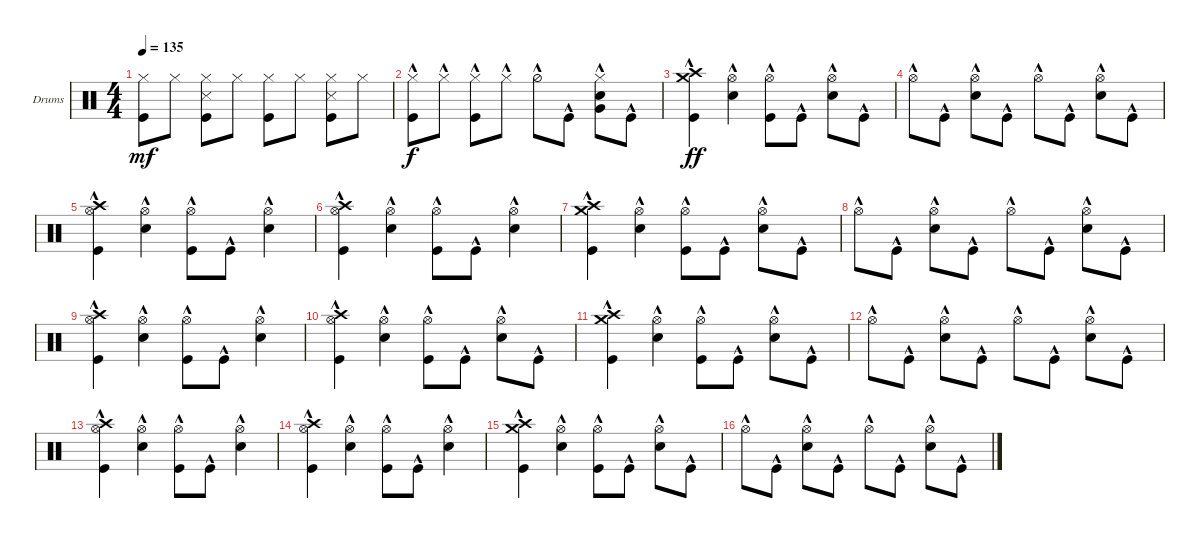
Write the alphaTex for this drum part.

\defaultSystemsLayout 4
\bracketExtendMode groupsimilarinstruments
\firstSystemTrackNameOrientation horizontal
\otherSystemsTrackNameOrientation horizontal
\track ("Drumkit" "Drums") {instrument percussion}
\staff {score}
\articulation defaults
\ts (4 4)
\tempo 135
\clef neutral
\ks c
("Hi-Hat (closed)" "Kick (hit)").8{dy mf} "Hi-Hat (closed)".8 ("Kick (hit)" "Hi-Hat (closed)" "Snare (side stick) 3").8 "Hi-Hat (closed)".8 ("Kick (hit)" "Hi-Hat (closed)").8 "Hi-Hat (closed)".8 ("Kick (hit)" "Hi-Hat (closed)" "Snare (side stick) 3").8 "Hi-Hat (closed)".8 |
("Hi-Hat (closed)"{hac} "Kick (hit)"{hac}).8{dy f} "Hi-Hat (closed)"{hac}.8 ("Kick (hit)"{hac} "Hi-Hat (closed)"{hac}).8 "Hi-Hat (closed)"{hac}.8 "Hi-Hat (half)"{hac}.8 "Kick (hit)"{hac}.8 ("Snare (hit) 2"{hac} "Very Low Tom (hit)"{hac} "Hi-Hat (closed)"{hac}).8 "Kick (hit)"{hac}.8 |
("Kick (hit)"{hac} "Crash high (hit)"{hac} "Crash medium (hit)"{hac}).4{dy ff} ("Hi-Hat (open)"{hac} "Snare (hit) 2"{hac}).4 ("Kick (hit)"{hac} "Hi-Hat (open)"{hac}).8 "Kick (hit)"{hac}.8 ("Snare (hit) 2"{hac} "Hi-Hat (open)"{hac}).8 "Kick (hit)"{hac}.8 |
"Hi-Hat (open)"{hac}.8 "Kick (hit)"{hac}.8 ("Hi-Hat (open)"{hac} "Snare (hit) 2"{hac}).8 "Kick (hit)"{hac}.8 "Hi-Hat (open)"{hac}.8 "Kick (hit)"{hac}.8 ("Snare (hit) 2"{hac} "Hi-Hat (open)"{hac}).8 "Kick (hit)"{hac}.8 |
("Kick (hit)"{hac} "Crash high (hit)"{hac} "Hi-Hat (open)"{hac}).4 ("Snare (hit) 2"{hac} "Hi-Hat (open)"{hac}).4 ("Kick (hit)"{hac} "Hi-Hat (open)"{hac}).8 "Kick (hit)"{hac}.8 ("Snare (hit) 2"{hac} "Hi-Hat (open)"{hac}).4 |
("Kick (hit)"{hac} "Crash high (hit)"{hac} "Hi-Hat (open)"{hac}).4 ("Snare (hit) 2"{hac} "Hi-Hat (open)"{hac}).4 ("Kick (hit)"{hac} "Hi-Hat (open)"{hac}).8 "Kick (hit)"{hac}.8 ("Snare (hit) 2"{hac} "Hi-Hat (open)"{hac}).4 |
("Kick (hit)"{hac} "Crash high (hit)"{hac} "Crash medium (hit)"{hac}).4 ("Hi-Hat (open)"{hac} "Snare (hit) 2"{hac}).4 ("Kick (hit)"{hac} "Hi-Hat (open)"{hac}).8 "Kick (hit)"{hac}.8 ("Snare (hit) 2"{hac} "Hi-Hat (open)"{hac}).8 "Kick (hit)"{hac}.8 |
"Hi-Hat (open)"{hac}.8 "Kick (hit)"{hac}.8 ("Hi-Hat (open)"{hac} "Snare (hit) 2"{hac}).8 "Kick (hit)"{hac}.8 "Hi-Hat (open)"{hac}.8 "Kick (hit)"{hac}.8 ("Snare (hit) 2"{hac} "Hi-Hat (open)"{hac}).8 "Kick (hit)"{hac}.8 |
("Kick (hit)"{hac} "Crash high (hit)"{hac} "Hi-Hat (open)"{hac}).4 ("Snare (hit) 2"{hac} "Hi-Hat (open)"{hac}).4 ("Kick (hit)"{hac} "Hi-Hat (open)"{hac}).8 "Kick (hit)"{hac}.8 ("Snare (hit) 2"{hac} "Hi-Hat (open)"{hac}).4 |
("Kick (hit)"{hac} "Crash high (hit)"{hac} "Hi-Hat (open)"{hac}).4 ("Snare (hit) 2"{hac} "Hi-Hat (open)"{hac}).4 ("Kick (hit)"{hac} "Hi-Hat (open)"{hac}).8 "Kick (hit)"{hac}.8 ("Snare (hit) 2"{hac} "Hi-Hat (open)"{hac}).8 "Kick (hit)"{hac}.8 |
("Kick (hit)"{hac} "Crash high (hit)"{hac} "Crash medium (hit)"{hac}).4 ("Hi-Hat (open)"{hac} "Snare (hit) 2"{hac}).4 ("Kick (hit)"{hac} "Hi-Hat (open)"{hac}).8 "Kick (hit)"{hac}.8 ("Snare (hit) 2"{hac} "Hi-Hat (open)"{hac}).8 "Kick (hit)"{hac}.8 |
"Hi-Hat (open)"{hac}.8 "Kick (hit)"{hac}.8 ("Hi-Hat (open)"{hac} "Snare (hit) 2"{hac}).8 "Kick (hit)"{hac}.8 "Hi-Hat (open)"{hac}.8 "Kick (hit)"{hac}.8 ("Snare (hit) 2"{hac} "Hi-Hat (open)"{hac}).8 "Kick (hit)"{hac}.8 |
("Kick (hit)"{hac} "Crash high (hit)"{hac} "Hi-Hat (open)"{hac}).4 ("Snare (hit) 2"{hac} "Hi-Hat (open)"{hac}).4 ("Kick (hit)"{hac} "Hi-Hat (open)"{hac}).8 "Kick (hit)"{hac}.8 ("Snare (hit) 2"{hac} "Hi-Hat (open)"{hac}).4 |
("Kick (hit)"{hac} "Crash high (hit)"{hac} "Hi-Hat (open)"{hac}).4 ("Snare (hit) 2"{hac} "Hi-Hat (open)"{hac}).4 ("Kick (hit)"{hac} "Hi-Hat (open)"{hac}).8 "Kick (hit)"{hac}.8 ("Snare (hit) 2"{hac} "Hi-Hat (open)"{hac}).4 |
("Kick (hit)"{hac} "Crash high (hit)"{hac} "Crash medium (hit)"{hac}).4 ("Hi-Hat (open)"{hac} "Snare (hit) 2"{hac}).4 ("Kick (hit)"{hac} "Hi-Hat (open)"{hac}).8 "Kick (hit)"{hac}.8 ("Snare (hit) 2"{hac} "Hi-Hat (open)"{hac}).8 "Kick (hit)"{hac}.8 |
"Hi-Hat (open)"{hac}.8 "Kick (hit)"{hac}.8 ("Hi-Hat (open)"{hac} "Snare (hit) 2"{hac}).8 "Kick (hit)"{hac}.8 "Hi-Hat (open)"{hac}.8 "Kick (hit)"{hac}.8 ("Snare (hit) 2"{hac} "Hi-Hat (open)"{hac}).8 "Kick (hit)"{hac}.8
